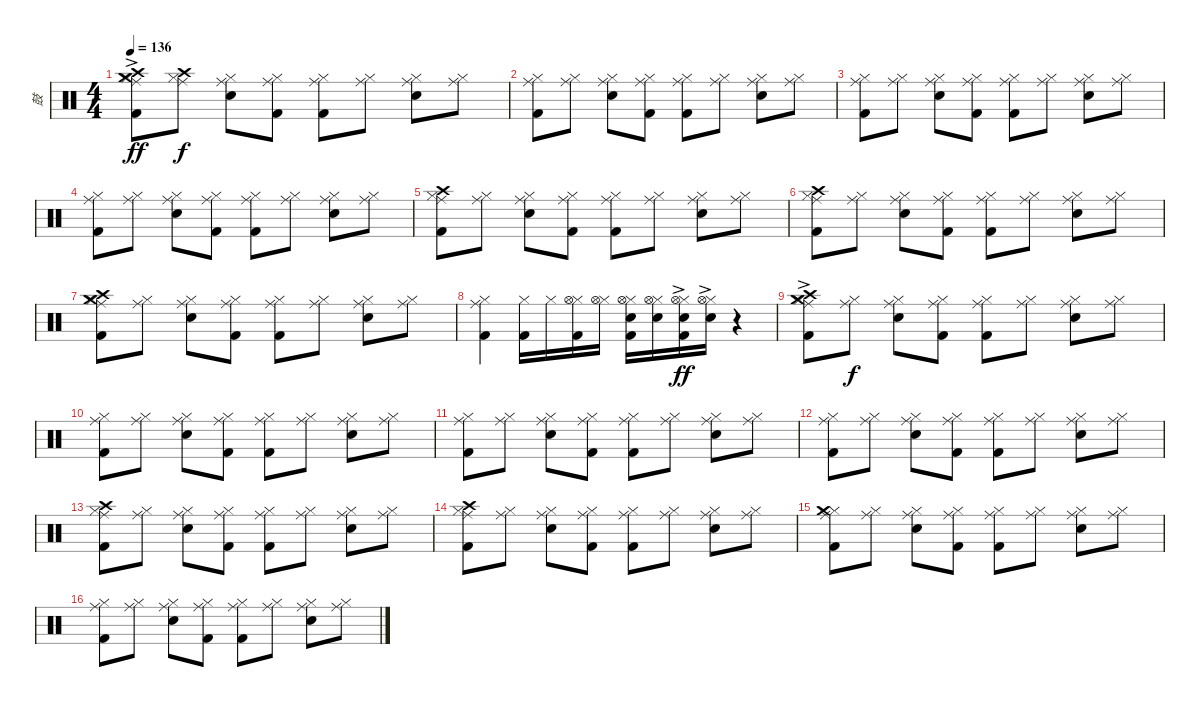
\track ("鼓" "鼓") {instrument percussion}
\staff {score}
\articulation defaults
\ts (4 4)
\tempo 136
\clef neutral
\ks c
("Ride (middle)"{ac} "Hi-Hat (closed)"{ac} "Crash high (hit)"{ac} "Crash medium (hit)"{ac} "Kick (hit) 2"{ac}).8{dy ff} ("Ride (middle)" "Hi-Hat (closed)" "Crash high (hit)").8{dy f} ("Ride (middle)" "Hi-Hat (closed)" "Electric Snare (hit)").8 ("Ride (middle)" "Hi-Hat (closed)" "Kick (hit) 2").8 ("Ride (middle)" "Hi-Hat (closed)" "Kick (hit) 2").8 ("Ride (middle)" "Hi-Hat (closed)").8 ("Ride (middle)" "Hi-Hat (closed)" "Electric Snare (hit)").8 ("Ride (middle)" "Hi-Hat (closed)").8 |
("Ride (middle)" "Hi-Hat (closed)" "Kick (hit) 2").8 ("Ride (middle)" "Hi-Hat (closed)").8 ("Ride (middle)" "Hi-Hat (closed)" "Electric Snare (hit)").8 ("Ride (middle)" "Hi-Hat (closed)" "Kick (hit) 2").8 ("Ride (middle)" "Hi-Hat (closed)" "Kick (hit) 2").8 ("Ride (middle)" "Hi-Hat (closed)").8 ("Ride (middle)" "Hi-Hat (closed)" "Electric Snare (hit)").8 ("Ride (middle)" "Hi-Hat (closed)").8 |
("Ride (middle)" "Hi-Hat (closed)" "Kick (hit) 2").8 ("Ride (middle)" "Hi-Hat (closed)").8 ("Ride (middle)" "Hi-Hat (closed)" "Electric Snare (hit)").8 ("Ride (middle)" "Hi-Hat (closed)" "Kick (hit) 2").8 ("Ride (middle)" "Hi-Hat (closed)" "Kick (hit) 2").8 ("Ride (middle)" "Hi-Hat (closed)").8 ("Ride (middle)" "Hi-Hat (closed)" "Electric Snare (hit)").8 ("Ride (middle)" "Hi-Hat (closed)").8 |
("Ride (middle)" "Hi-Hat (closed)" "Kick (hit) 2").8 ("Ride (middle)" "Hi-Hat (closed)").8 ("Ride (middle)" "Hi-Hat (closed)" "Electric Snare (hit)").8 ("Ride (middle)" "Hi-Hat (closed)" "Kick (hit) 2").8 ("Ride (middle)" "Hi-Hat (closed)" "Kick (hit) 2").8 ("Ride (middle)" "Hi-Hat (closed)").8 ("Ride (middle)" "Hi-Hat (closed)" "Electric Snare (hit)").8 ("Ride (middle)" "Hi-Hat (closed)").8 |
("Ride (middle)" "Hi-Hat (closed)" "Crash high (hit)" "Kick (hit) 2").8 ("Ride (middle)" "Hi-Hat (closed)").8 ("Ride (middle)" "Hi-Hat (closed)" "Electric Snare (hit)").8 ("Ride (middle)" "Hi-Hat (closed)" "Kick (hit) 2").8 ("Ride (middle)" "Hi-Hat (closed)" "Kick (hit) 2").8 ("Ride (middle)" "Hi-Hat (closed)").8 ("Ride (middle)" "Hi-Hat (closed)" "Electric Snare (hit)").8 ("Ride (middle)" "Hi-Hat (closed)").8 |
("Ride (middle)" "Hi-Hat (closed)" "Crash high (hit)" "Kick (hit) 2").8 ("Ride (middle)" "Hi-Hat (closed)").8 ("Ride (middle)" "Hi-Hat (closed)" "Electric Snare (hit)").8 ("Ride (middle)" "Hi-Hat (closed)" "Kick (hit) 2").8 ("Ride (middle)" "Hi-Hat (closed)" "Kick (hit) 2").8 ("Ride (middle)" "Hi-Hat (closed)").8 ("Ride (middle)" "Hi-Hat (closed)" "Electric Snare (hit)").8 ("Ride (middle)" "Hi-Hat (closed)").8 |
("Ride (middle)" "Hi-Hat (closed)" "Crash medium (hit)" "Crash high (hit)" "Kick (hit) 2").8 ("Ride (middle)" "Hi-Hat (closed)").8 ("Ride (middle)" "Hi-Hat (closed)" "Electric Snare (hit)").8 ("Ride (middle)" "Hi-Hat (closed)" "Kick (hit) 2").8 ("Ride (middle)" "Hi-Hat (closed)" "Kick (hit) 2").8 ("Ride (middle)" "Hi-Hat (closed)").8 ("Ride (middle)" "Hi-Hat (closed)" "Electric Snare (hit)").8 ("Ride (middle)" "Hi-Hat (closed)").8 |
("Ride (middle)" "Hi-Hat (closed)" "Kick (hit) 2").4 ("Hi-Hat (closed)" "Kick (hit) 2").16 "Hi-Hat (closed)".16 ("Hi-Hat (closed)" "Hi-Hat (open)" "Kick (hit) 2").16 ("Hi-Hat (closed)" "Hi-Hat (open)").16 ("Hi-Hat (closed)" "Hi-Hat (open)" "Electric Snare (hit)" "Kick (hit) 2").16 ("Hi-Hat (closed)" "Hi-Hat (open)" "Electric Snare (hit)").16 ("Hi-Hat (closed)"{ac} "Hi-Hat (open)"{ac} "Electric Snare (hit)"{ac} "Kick (hit) 2"{ac}).16{dy ff} ("Hi-Hat (closed)"{ac} "Hi-Hat (open)"{ac} "Electric Snare (hit)"{ac}).16 r.4 |
("Ride (middle)"{ac} "Hi-Hat (closed)"{ac} "Crash high (hit)"{ac} "Crash medium (hit)"{ac} "Kick (hit) 2"{ac}).8 ("Ride (middle)" "Hi-Hat (closed)").8{dy f} ("Ride (middle)" "Hi-Hat (closed)" "Electric Snare (hit)").8 ("Ride (middle)" "Hi-Hat (closed)" "Kick (hit) 2").8 ("Ride (middle)" "Hi-Hat (closed)" "Kick (hit) 2").8 ("Ride (middle)" "Hi-Hat (closed)").8 ("Ride (middle)" "Hi-Hat (closed)" "Electric Snare (hit)").8 ("Ride (middle)" "Hi-Hat (closed)").8 |
("Ride (middle)" "Hi-Hat (closed)" "Kick (hit) 2").8 ("Ride (middle)" "Hi-Hat (closed)").8 ("Ride (middle)" "Hi-Hat (closed)" "Electric Snare (hit)").8 ("Ride (middle)" "Hi-Hat (closed)" "Kick (hit) 2").8 ("Ride (middle)" "Hi-Hat (closed)" "Kick (hit) 2").8 ("Ride (middle)" "Hi-Hat (closed)").8 ("Ride (middle)" "Hi-Hat (closed)" "Electric Snare (hit)").8 ("Ride (middle)" "Hi-Hat (closed)").8 |
("Ride (middle)" "Hi-Hat (closed)" "Kick (hit) 2").8 ("Ride (middle)" "Hi-Hat (closed)").8 ("Ride (middle)" "Hi-Hat (closed)" "Electric Snare (hit)").8 ("Ride (middle)" "Hi-Hat (closed)" "Kick (hit) 2").8 ("Ride (middle)" "Hi-Hat (closed)" "Kick (hit) 2").8 ("Ride (middle)" "Hi-Hat (closed)").8 ("Ride (middle)" "Hi-Hat (closed)" "Electric Snare (hit)").8 ("Ride (middle)" "Hi-Hat (closed)").8 |
("Ride (middle)" "Hi-Hat (closed)" "Kick (hit) 2").8 ("Ride (middle)" "Hi-Hat (closed)").8 ("Ride (middle)" "Hi-Hat (closed)" "Electric Snare (hit)").8 ("Ride (middle)" "Hi-Hat (closed)" "Kick (hit) 2").8 ("Ride (middle)" "Hi-Hat (closed)" "Kick (hit) 2").8 ("Ride (middle)" "Hi-Hat (closed)").8 ("Ride (middle)" "Hi-Hat (closed)" "Electric Snare (hit)").8 ("Ride (middle)" "Hi-Hat (closed)").8 |
("Ride (middle)" "Hi-Hat (closed)" "Crash high (hit)" "Kick (hit) 2").8 ("Ride (middle)" "Hi-Hat (closed)").8 ("Ride (middle)" "Hi-Hat (closed)" "Electric Snare (hit)").8 ("Ride (middle)" "Hi-Hat (closed)" "Kick (hit) 2").8 ("Ride (middle)" "Hi-Hat (closed)" "Kick (hit) 2").8 ("Ride (middle)" "Hi-Hat (closed)").8 ("Ride (middle)" "Hi-Hat (closed)" "Electric Snare (hit)").8 ("Ride (middle)" "Hi-Hat (closed)").8 |
("Ride (middle)" "Hi-Hat (closed)" "Crash high (hit)" "Kick (hit) 2").8 ("Ride (middle)" "Hi-Hat (closed)").8 ("Ride (middle)" "Hi-Hat (closed)" "Electric Snare (hit)").8 ("Ride (middle)" "Hi-Hat (closed)" "Kick (hit) 2").8 ("Ride (middle)" "Hi-Hat (closed)" "Kick (hit) 2").8 ("Ride (middle)" "Hi-Hat (closed)").8 ("Ride (middle)" "Hi-Hat (closed)" "Electric Snare (hit)").8 ("Ride (middle)" "Hi-Hat (closed)").8 |
("Ride (middle)" "Hi-Hat (closed)" "Crash medium (hit)" "Kick (hit) 2").8 ("Ride (middle)" "Hi-Hat (closed)").8 ("Ride (middle)" "Hi-Hat (closed)" "Electric Snare (hit)").8 ("Ride (middle)" "Hi-Hat (closed)" "Kick (hit) 2").8 ("Ride (middle)" "Hi-Hat (closed)" "Kick (hit) 2").8 ("Ride (middle)" "Hi-Hat (closed)").8 ("Ride (middle)" "Hi-Hat (closed)" "Electric Snare (hit)").8 ("Ride (middle)" "Hi-Hat (closed)").8 |
("Ride (middle)" "Hi-Hat (closed)" "Kick (hit) 2").8 ("Ride (middle)" "Hi-Hat (closed)").8 ("Ride (middle)" "Hi-Hat (closed)" "Electric Snare (hit)").8 ("Ride (middle)" "Hi-Hat (closed)" "Kick (hit) 2").8 ("Ride (middle)" "Hi-Hat (closed)" "Kick (hit) 2").8 ("Ride (middle)" "Hi-Hat (closed)").8 ("Ride (middle)" "Hi-Hat (closed)" "Electric Snare (hit)").8 ("Ride (middle)" "Hi-Hat (closed)").8
